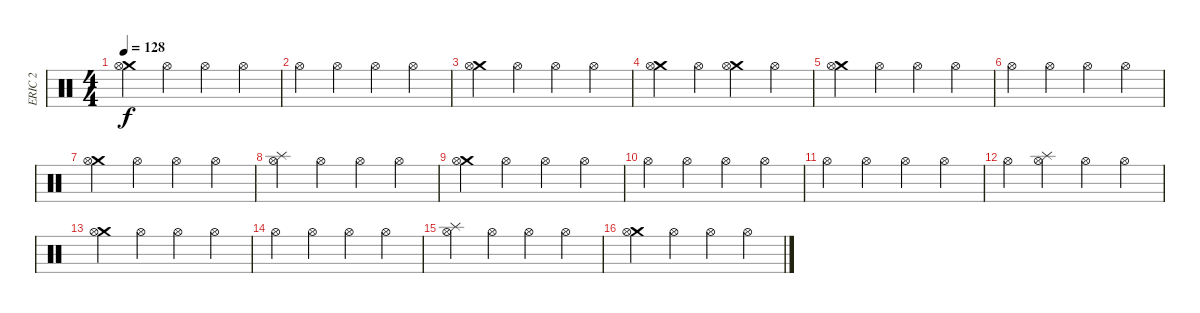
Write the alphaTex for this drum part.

\track ("ERIC 2" "ERIC 2") {instrument percussion}
\staff {score}
\articulation defaults
\ts (4 4)
\tempo 128
\clef neutral
\ks c
("Crash medium (hit)" "Hi-Hat (open)").4{dy f} "Hi-Hat (open)".4 "Hi-Hat (open)".4 "Hi-Hat (open)".4 |
"Hi-Hat (open)".4 "Hi-Hat (open)".4 "Hi-Hat (open)".4 "Hi-Hat (open)".4 |
("Crash medium (hit)" "Hi-Hat (open)").4 "Hi-Hat (open)".4 "Hi-Hat (open)".4 "Hi-Hat (open)".4 |
("Crash medium (hit)" "Hi-Hat (open)").4 "Hi-Hat (open)".4 ("Crash medium (hit)" "Hi-Hat (open)").4 "Hi-Hat (open)".4 |
("Crash medium (hit)" "Hi-Hat (open)").4 "Hi-Hat (open)".4 "Hi-Hat (open)".4 "Hi-Hat (open)".4 |
"Hi-Hat (open)".4 "Hi-Hat (open)".4 "Hi-Hat (open)".4 "Hi-Hat (open)".4 |
("Crash medium (hit)" "Hi-Hat (open)").4 "Hi-Hat (open)".4 "Hi-Hat (open)".4 "Hi-Hat (open)".4 |
("Splash (hit)" "Hi-Hat (open)").4 "Hi-Hat (open)".4 "Hi-Hat (open)".4 "Hi-Hat (open)".4 |
("Crash medium (hit)" "Hi-Hat (open)").4 "Hi-Hat (open)".4 "Hi-Hat (open)".4 "Hi-Hat (open)".4 |
"Hi-Hat (open)".4 "Hi-Hat (open)".4 "Hi-Hat (open)".4 "Hi-Hat (open)".4 |
"Hi-Hat (open)".4 "Hi-Hat (open)".4 "Hi-Hat (open)".4 "Hi-Hat (open)".4 |
"Hi-Hat (open)".4 ("Splash (hit)" "Hi-Hat (open)").4 "Hi-Hat (open)".4 "Hi-Hat (open)".4 |
("Crash medium (hit)" "Hi-Hat (open)").4 "Hi-Hat (open)".4 "Hi-Hat (open)".4 "Hi-Hat (open)".4 |
"Hi-Hat (open)".4 "Hi-Hat (open)".4 "Hi-Hat (open)".4 "Hi-Hat (open)".4 |
("Splash (hit)" "Hi-Hat (open)").4 "Hi-Hat (open)".4 "Hi-Hat (open)".4 "Hi-Hat (open)".4 |
("Crash medium (hit)" "Hi-Hat (open)").4 "Hi-Hat (open)".4 "Hi-Hat (open)".4 "Hi-Hat (open)".4
